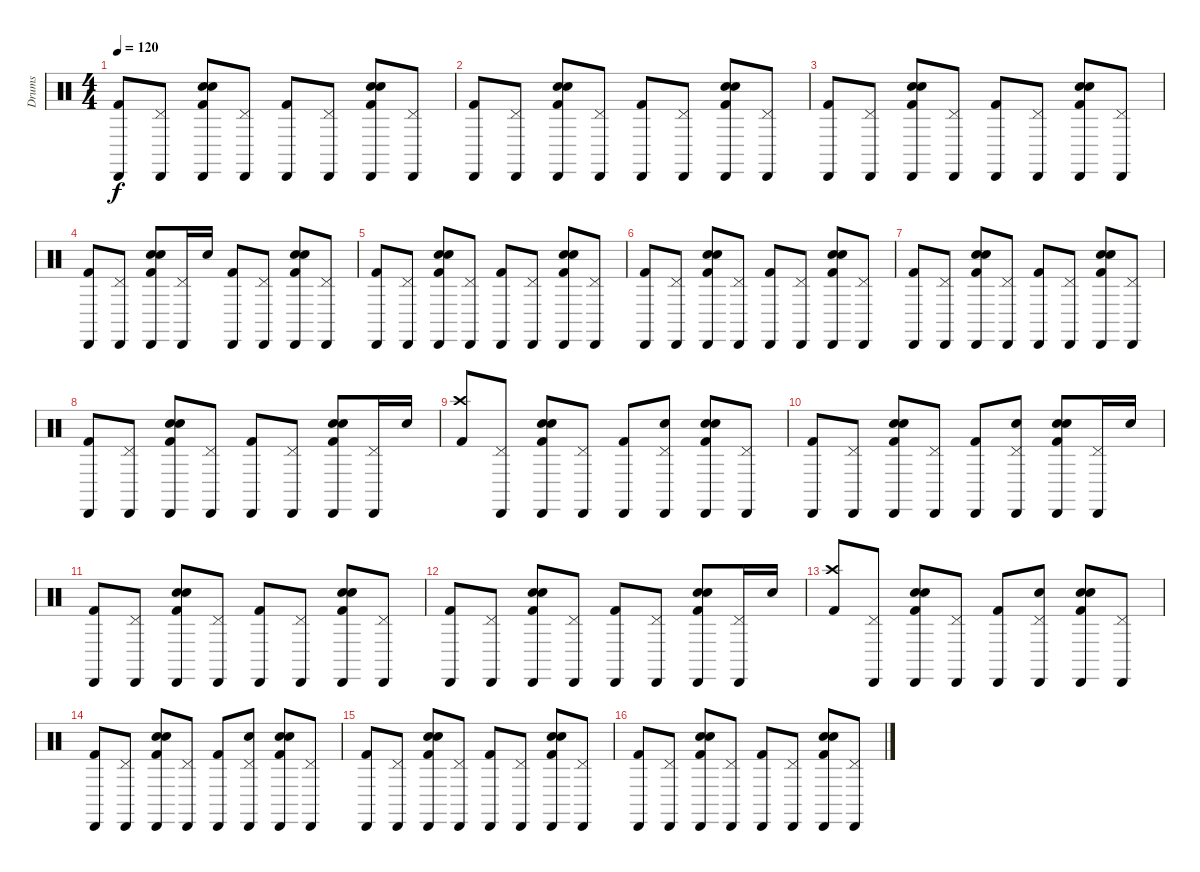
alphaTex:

\track ("Drums" "Drums") {instrument percussion}
\staff {score}
\articulation defaults
\ts (4 4)
\tempo 120
\clef neutral
\ks c
("Cabasa (hit)" "Kick (hit) 2").8{dy f} ("Cabasa (hit)" "Pedal Hi-Hat (hit)").8 ("Hand Clap (hit)" "Cabasa (hit)" "Electric Snare (hit)" "Kick (hit) 2").8 ("Cabasa (hit)" "Pedal Hi-Hat (hit)").8 ("Cabasa (hit)" "Kick (hit) 2").8 ("Cabasa (hit)" "Pedal Hi-Hat (hit)").8 ("Hand Clap (hit)" "Cabasa (hit)" "Electric Snare (hit)" "Kick (hit) 2").8 ("Cabasa (hit)" "Pedal Hi-Hat (hit)").8 |
("Cabasa (hit)" "Kick (hit) 2").8 ("Cabasa (hit)" "Pedal Hi-Hat (hit)").8 ("Hand Clap (hit)" "Cabasa (hit)" "Electric Snare (hit)" "Kick (hit) 2").8 ("Cabasa (hit)" "Pedal Hi-Hat (hit)").8 ("Cabasa (hit)" "Kick (hit) 2").8 ("Cabasa (hit)" "Pedal Hi-Hat (hit)").8 ("Hand Clap (hit)" "Cabasa (hit)" "Electric Snare (hit)" "Kick (hit) 2").8 ("Cabasa (hit)" "Pedal Hi-Hat (hit)").8 |
("Cabasa (hit)" "Kick (hit) 2").8 ("Cabasa (hit)" "Pedal Hi-Hat (hit)").8 ("Hand Clap (hit)" "Cabasa (hit)" "Electric Snare (hit)" "Kick (hit) 2").8 ("Cabasa (hit)" "Pedal Hi-Hat (hit)").8 ("Cabasa (hit)" "Kick (hit) 2").8 ("Cabasa (hit)" "Pedal Hi-Hat (hit)").8 ("Hand Clap (hit)" "Cabasa (hit)" "Electric Snare (hit)" "Kick (hit) 2").8 ("Cabasa (hit)" "Pedal Hi-Hat (hit)").8 |
("Cabasa (hit)" "Kick (hit) 2").8 ("Cabasa (hit)" "Pedal Hi-Hat (hit)").8 ("Hand Clap (hit)" "Cabasa (hit)" "Electric Snare (hit)" "Kick (hit) 2").8 ("Cabasa (hit)" "Pedal Hi-Hat (hit)").16 "Electric Snare (hit)".16 ("Cabasa (hit)" "Kick (hit) 2").8 ("Cabasa (hit)" "Pedal Hi-Hat (hit)").8 ("Hand Clap (hit)" "Cabasa (hit)" "Electric Snare (hit)" "Kick (hit) 2").8 ("Cabasa (hit)" "Pedal Hi-Hat (hit)").8 |
("Cabasa (hit)" "Kick (hit) 2").8 ("Cabasa (hit)" "Pedal Hi-Hat (hit)").8 ("Hand Clap (hit)" "Cabasa (hit)" "Electric Snare (hit)" "Kick (hit) 2").8 ("Cabasa (hit)" "Pedal Hi-Hat (hit)").8 ("Cabasa (hit)" "Kick (hit) 2").8 ("Cabasa (hit)" "Pedal Hi-Hat (hit)").8 ("Hand Clap (hit)" "Cabasa (hit)" "Electric Snare (hit)" "Kick (hit) 2").8 ("Cabasa (hit)" "Pedal Hi-Hat (hit)").8 |
("Cabasa (hit)" "Kick (hit) 2").8 ("Cabasa (hit)" "Pedal Hi-Hat (hit)").8 ("Hand Clap (hit)" "Cabasa (hit)" "Electric Snare (hit)" "Kick (hit) 2").8 ("Cabasa (hit)" "Pedal Hi-Hat (hit)").8 ("Cabasa (hit)" "Kick (hit) 2").8 ("Cabasa (hit)" "Pedal Hi-Hat (hit)").8 ("Hand Clap (hit)" "Cabasa (hit)" "Electric Snare (hit)" "Kick (hit) 2").8 ("Cabasa (hit)" "Pedal Hi-Hat (hit)").8 |
("Cabasa (hit)" "Kick (hit) 2").8 ("Cabasa (hit)" "Pedal Hi-Hat (hit)").8 ("Hand Clap (hit)" "Cabasa (hit)" "Electric Snare (hit)" "Kick (hit) 2").8 ("Cabasa (hit)" "Pedal Hi-Hat (hit)").8 ("Cabasa (hit)" "Kick (hit) 2").8 ("Cabasa (hit)" "Pedal Hi-Hat (hit)").8 ("Hand Clap (hit)" "Cabasa (hit)" "Electric Snare (hit)" "Kick (hit) 2").8 ("Cabasa (hit)" "Pedal Hi-Hat (hit)").8 |
("Cabasa (hit)" "Kick (hit) 2").8 ("Cabasa (hit)" "Pedal Hi-Hat (hit)").8 ("Hand Clap (hit)" "Cabasa (hit)" "Electric Snare (hit)" "Kick (hit) 2").8 ("Cabasa (hit)" "Pedal Hi-Hat (hit)").8 ("Cabasa (hit)" "Kick (hit) 2").8 ("Cabasa (hit)" "Pedal Hi-Hat (hit)").8 ("Hand Clap (hit)" "Cabasa (hit)" "Electric Snare (hit)" "Kick (hit) 2").8 ("Cabasa (hit)" "Pedal Hi-Hat (hit)").16 "Electric Snare (hit)".16 |
("Crash high (hit)" "Kick (hit) 2").8 ("Cabasa (hit)" "Pedal Hi-Hat (hit)").8 ("Hand Clap (hit)" "Cabasa (hit)" "Electric Snare (hit)" "Kick (hit) 2").8 ("Cabasa (hit)" "Pedal Hi-Hat (hit)").8 ("Cabasa (hit)" "Kick (hit) 2").8 ("Hand Clap (hit)" "Cabasa (hit)" "Pedal Hi-Hat (hit)").8 ("Hand Clap (hit)" "Cabasa (hit)" "Electric Snare (hit)" "Kick (hit) 2").8 ("Cabasa (hit)" "Pedal Hi-Hat (hit)").8 |
("Cabasa (hit)" "Kick (hit) 2").8 ("Cabasa (hit)" "Pedal Hi-Hat (hit)").8 ("Hand Clap (hit)" "Cabasa (hit)" "Electric Snare (hit)" "Kick (hit) 2").8 ("Cabasa (hit)" "Pedal Hi-Hat (hit)").8 ("Cabasa (hit)" "Kick (hit) 2").8 ("Hand Clap (hit)" "Cabasa (hit)" "Pedal Hi-Hat (hit)").8 ("Hand Clap (hit)" "Cabasa (hit)" "Electric Snare (hit)" "Kick (hit) 2").8 ("Cabasa (hit)" "Pedal Hi-Hat (hit)").16 "Electric Snare (hit)".16 |
("Cabasa (hit)" "Kick (hit) 2").8 ("Cabasa (hit)" "Pedal Hi-Hat (hit)").8 ("Hand Clap (hit)" "Cabasa (hit)" "Electric Snare (hit)" "Kick (hit) 2").8 ("Cabasa (hit)" "Pedal Hi-Hat (hit)").8 ("Cabasa (hit)" "Kick (hit) 2").8 ("Cabasa (hit)" "Pedal Hi-Hat (hit)").8 ("Hand Clap (hit)" "Cabasa (hit)" "Electric Snare (hit)" "Kick (hit) 2").8 ("Cabasa (hit)" "Pedal Hi-Hat (hit)").8 |
("Cabasa (hit)" "Kick (hit) 2").8 ("Cabasa (hit)" "Pedal Hi-Hat (hit)").8 ("Hand Clap (hit)" "Cabasa (hit)" "Electric Snare (hit)" "Kick (hit) 2").8 ("Cabasa (hit)" "Pedal Hi-Hat (hit)").8 ("Cabasa (hit)" "Kick (hit) 2").8 ("Cabasa (hit)" "Pedal Hi-Hat (hit)").8 ("Hand Clap (hit)" "Cabasa (hit)" "Electric Snare (hit)" "Kick (hit) 2").8 ("Cabasa (hit)" "Pedal Hi-Hat (hit)").16 "Electric Snare (hit)".16 |
("Crash high (hit)" "Kick (hit) 2").8 ("Cabasa (hit)" "Pedal Hi-Hat (hit)").8 ("Hand Clap (hit)" "Cabasa (hit)" "Electric Snare (hit)" "Kick (hit) 2").8 ("Cabasa (hit)" "Pedal Hi-Hat (hit)").8 ("Cabasa (hit)" "Kick (hit) 2").8 ("Hand Clap (hit)" "Cabasa (hit)" "Pedal Hi-Hat (hit)").8 ("Hand Clap (hit)" "Cabasa (hit)" "Electric Snare (hit)" "Kick (hit) 2").8 ("Cabasa (hit)" "Pedal Hi-Hat (hit)").8 |
("Cabasa (hit)" "Kick (hit) 2").8 ("Cabasa (hit)" "Pedal Hi-Hat (hit)").8 ("Hand Clap (hit)" "Cabasa (hit)" "Electric Snare (hit)" "Kick (hit) 2").8 ("Cabasa (hit)" "Pedal Hi-Hat (hit)").8 ("Cabasa (hit)" "Kick (hit) 2").8 ("Hand Clap (hit)" "Cabasa (hit)" "Pedal Hi-Hat (hit)").8 ("Hand Clap (hit)" "Cabasa (hit)" "Electric Snare (hit)" "Kick (hit) 2").8 ("Cabasa (hit)" "Pedal Hi-Hat (hit)").8 |
("Cabasa (hit)" "Kick (hit) 2").8 ("Cabasa (hit)" "Pedal Hi-Hat (hit)").8 ("Hand Clap (hit)" "Cabasa (hit)" "Electric Snare (hit)" "Kick (hit) 2").8 ("Cabasa (hit)" "Pedal Hi-Hat (hit)").8 ("Cabasa (hit)" "Kick (hit) 2").8 ("Cabasa (hit)" "Pedal Hi-Hat (hit)").8 ("Hand Clap (hit)" "Cabasa (hit)" "Electric Snare (hit)" "Kick (hit) 2").8 ("Cabasa (hit)" "Pedal Hi-Hat (hit)").8 |
("Cabasa (hit)" "Kick (hit) 2").8 ("Cabasa (hit)" "Pedal Hi-Hat (hit)").8 ("Hand Clap (hit)" "Cabasa (hit)" "Electric Snare (hit)" "Kick (hit) 2").8 ("Cabasa (hit)" "Pedal Hi-Hat (hit)").8 ("Cabasa (hit)" "Kick (hit) 2").8 ("Cabasa (hit)" "Pedal Hi-Hat (hit)").8 ("Hand Clap (hit)" "Cabasa (hit)" "Electric Snare (hit)" "Kick (hit) 2").8 ("Cabasa (hit)" "Pedal Hi-Hat (hit)").8
